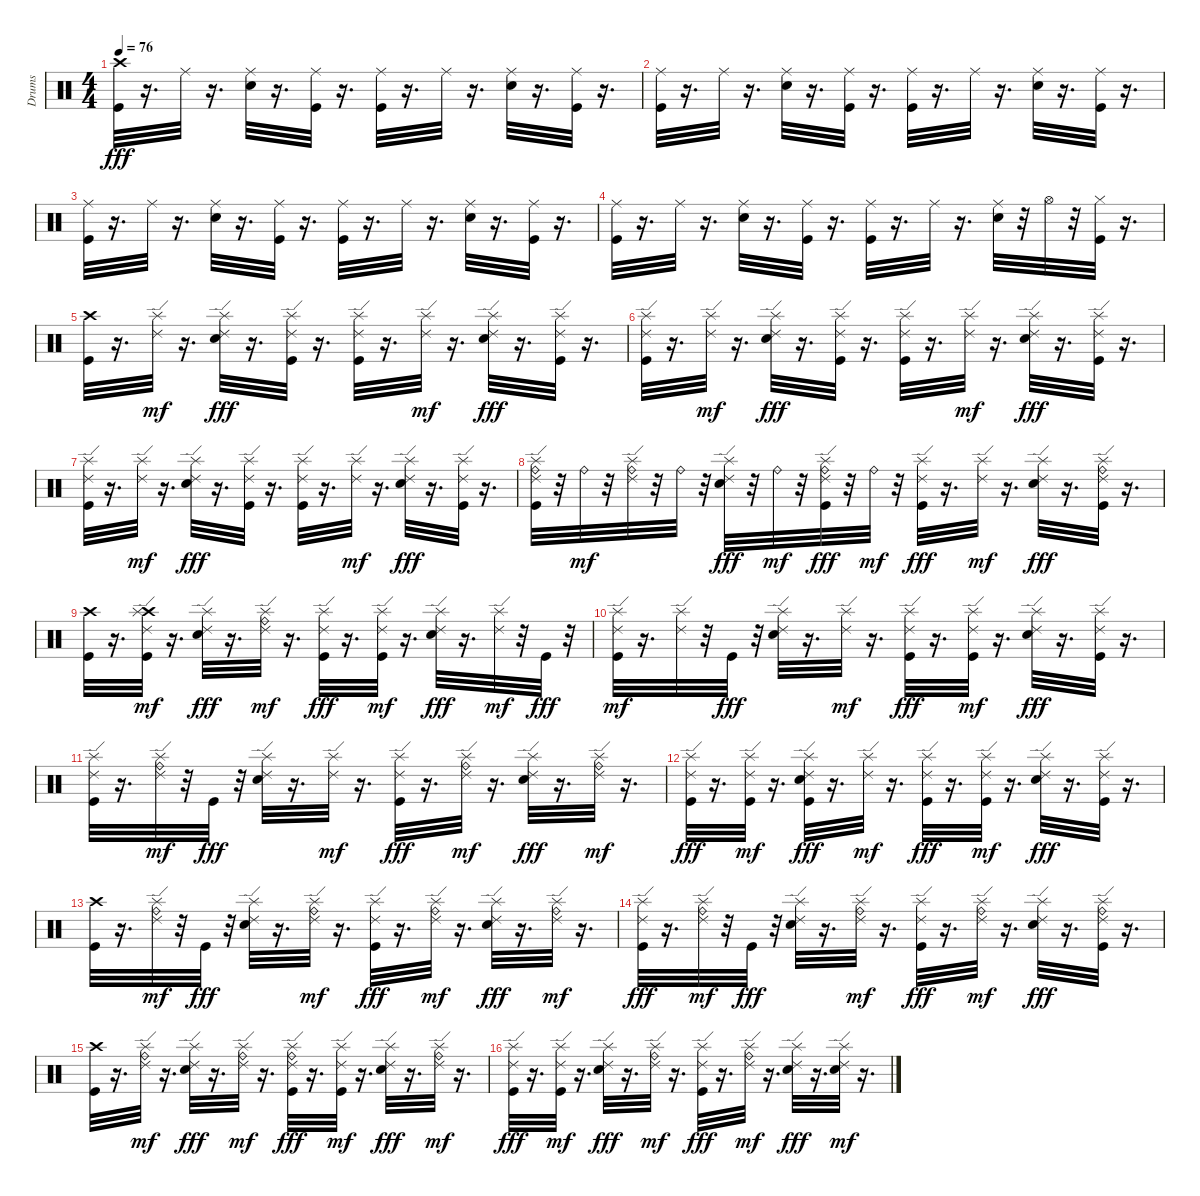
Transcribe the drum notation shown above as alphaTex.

\track ("Drums" "Drums") {instrument percussion}
\staff {score}
\articulation defaults
\ts (4 4)
\tempo 76
\clef neutral
\ks c
("Kick (hit)" "Crash high (hit)").32{dy fff} r.16{d} "Ride (middle)".32 r.16{d} ("Ride (middle)" "Electric Snare (hit)").32 r.16{d} ("Ride (middle)" "Kick (hit)").32 r.16{d} ("Ride (middle)" "Kick (hit)").32 r.16{d} "Ride (middle)".32 r.16{d} ("Ride (middle)" "Electric Snare (hit)").32 r.16{d} ("Ride (middle)" "Kick (hit)").32 r.16{d} |
("Ride (middle)" "Kick (hit)").32 r.16{d} "Ride (middle)".32 r.16{d} ("Ride (middle)" "Electric Snare (hit)").32 r.16{d} ("Ride (middle)" "Kick (hit)").32 r.16{d} ("Ride (middle)" "Kick (hit)").32 r.16{d} "Ride (middle)".32 r.16{d} ("Ride (middle)" "Electric Snare (hit)").32 r.16{d} ("Ride (middle)" "Kick (hit)").32 r.16{d} |
("Ride (middle)" "Kick (hit)").32 r.16{d} "Ride (middle)".32 r.16{d} ("Ride (middle)" "Electric Snare (hit)").32 r.16{d} ("Ride (middle)" "Kick (hit)").32 r.16{d} ("Ride (middle)" "Kick (hit)").32 r.16{d} "Ride (middle)".32 r.16{d} ("Ride (middle)" "Electric Snare (hit)").32 r.16{d} ("Ride (middle)" "Kick (hit)").32 r.16{d} |
("Ride (middle)" "Kick (hit)").32 r.16{d} "Ride (middle)".32 r.16{d} ("Ride (middle)" "Electric Snare (hit)").32 r.16{d} ("Ride (middle)" "Kick (hit)").32 r.16{d} ("Ride (middle)" "Kick (hit)").32 r.16{d} "Ride (middle)".32 r.16{d} ("Ride (middle)" "Electric Snare (hit)").32 r.32 "Hi-Hat (open)".32 r.32 ("Hi-Hat (closed)" "Kick (hit)").32 r.16{d} |
("Kick (hit)" "Crash high (hit)").32 r.16{d} ("Ride (edge) 2" "Splash (hit)").32{dy mf} r.16{d} ("Ride (edge) 2" "Splash (hit)" "Electric Snare (hit)").32{dy fff} r.16{d} ("Ride (edge) 2" "Splash (hit)" "Kick (hit)").32 r.16{d} ("Ride (edge) 2" "Splash (hit)" "Kick (hit)").32 r.16{d} ("Ride (edge) 2" "Splash (hit)").32{dy mf} r.16{d} ("Ride (edge) 2" "Splash (hit)" "Electric Snare (hit)").32{dy fff} r.16{d} ("Ride (edge) 2" "Splash (hit)" "Kick (hit)").32 r.16{d} |
("Ride (edge) 2" "Splash (hit)" "Kick (hit)").32 r.16{d} ("Ride (edge) 2" "Splash (hit)").32{dy mf} r.16{d} ("Ride (edge) 2" "Splash (hit)" "Electric Snare (hit)").32{dy fff} r.16{d} ("Ride (edge) 2" "Splash (hit)" "Kick (hit)").32 r.16{d} ("Ride (edge) 2" "Splash (hit)" "Kick (hit)").32 r.16{d} ("Ride (edge) 2" "Splash (hit)").32{dy mf} r.16{d} ("Ride (edge) 2" "Splash (hit)" "Electric Snare (hit)").32{dy fff} r.16{d} ("Ride (edge) 2" "Splash (hit)" "Kick (hit)").32 r.16{d} |
("Ride (edge) 2" "Splash (hit)" "Kick (hit)").32 r.16{d} ("Ride (edge) 2" "Splash (hit)").32{dy mf} r.16{d} ("Ride (edge) 2" "Splash (hit)" "Electric Snare (hit)").32{dy fff} r.16{d} ("Ride (edge) 2" "Splash (hit)" "Kick (hit)").32 r.16{d} ("Ride (edge) 2" "Splash (hit)" "Kick (hit)").32 r.16{d} ("Ride (edge) 2" "Splash (hit)").32{dy mf} r.16{d} ("Ride (edge) 2" "Splash (hit)" "Electric Snare (hit)").32{dy fff} r.16{d} ("Ride (edge) 2" "Splash (hit)" "Kick (hit)").32 r.16{d} |
("Ride (bell)" "Ride (edge) 2" "Splash (hit)" "Kick (hit)").32 r.32 "Ride (bell)".32{dy mf} r.32 ("Ride (bell)" "Ride (edge) 2" "Splash (hit)").32 r.32 "Ride (bell)".32 r.32 ("Ride (edge) 2" "Splash (hit)" "Electric Snare (hit)").32{dy fff} r.32 "Ride (bell)".32{dy mf} r.32 ("Ride (bell)" "Ride (edge) 2" "Splash (hit)" "Kick (hit)").32{dy fff} r.32 "Ride (bell)".32{dy mf} r.32 ("Ride (edge) 2" "Splash (hit)" "Kick (hit)").32{dy fff} r.16{d} ("Ride (edge) 2" "Splash (hit)").32{dy mf} r.16{d} ("Ride (edge) 2" "Splash (hit)" "Electric Snare (hit)").32{dy fff} r.16{d} ("Ride (bell)" "Ride (edge) 2" "Splash (hit)" "Kick (hit)").32 r.16{d} |
("Kick (hit)" "Crash high (hit)").32 r.16{d} ("Kick (hit)" "Crash high (hit)" "Ride (edge) 2" "Splash (hit)").32{dy mf} r.16{d} ("Ride (edge) 2" "Splash (hit)" "Electric Snare (hit)").32{dy fff} r.16{d} ("Ride (bell)" "Ride (edge) 2" "Splash (hit)").32{dy mf} r.16{d} ("Ride (edge) 2" "Splash (hit)" "Kick (hit)").32{dy fff} r.16{d} ("Kick (hit)" "Ride (edge) 2" "Splash (hit)").32{dy mf} r.16{d} ("Ride (edge) 2" "Splash (hit)" "Electric Snare (hit)").32{dy fff} r.16{d} ("Ride (edge) 2" "Splash (hit)").32{dy mf} r.32 "Kick (hit)".32{dy fff} r.32 |
("Kick (hit)" "Ride (edge) 2" "Splash (hit)").32{dy mf} r.16{d} ("Ride (edge) 2" "Splash (hit)").32 r.32 "Kick (hit)".32{dy fff} r.32 ("Ride (edge) 2" "Splash (hit)" "Electric Snare (hit)").32 r.16{d} ("Ride (edge) 2" "Splash (hit)").32{dy mf} r.16{d} ("Ride (edge) 2" "Splash (hit)" "Kick (hit)").32{dy fff} r.16{d} ("Kick (hit)" "Ride (edge) 2" "Splash (hit)").32{dy mf} r.16{d} ("Ride (edge) 2" "Splash (hit)" "Electric Snare (hit)").32{dy fff} r.16{d} ("Ride (edge) 2" "Splash (hit)" "Kick (hit)").32 r.16{d} |
("Ride (edge) 2" "Splash (hit)" "Kick (hit)").32 r.16{d} ("Ride (bell)" "Ride (edge) 2" "Splash (hit)").32{dy mf} r.32 "Kick (hit)".32{dy fff} r.32 ("Ride (edge) 2" "Splash (hit)" "Electric Snare (hit)").32 r.16{d} ("Ride (edge) 2" "Splash (hit)").32{dy mf} r.16{d} ("Ride (edge) 2" "Splash (hit)" "Kick (hit)").32{dy fff} r.16{d} ("Ride (bell)" "Ride (edge) 2" "Splash (hit)").32{dy mf} r.16{d} ("Ride (edge) 2" "Splash (hit)" "Electric Snare (hit)").32{dy fff} r.16{d} ("Ride (bell)" "Ride (edge) 2" "Splash (hit)").32{dy mf} r.16{d} |
("Ride (edge) 2" "Splash (hit)" "Kick (hit)").32{dy fff} r.16{d} ("Kick (hit)" "Ride (edge) 2" "Splash (hit)").32{dy mf} r.16{d} ("Kick (hit)" "Ride (edge) 2" "Splash (hit)" "Electric Snare (hit)").32{dy fff} r.16{d} ("Ride (edge) 2" "Splash (hit)").32{dy mf} r.16{d} ("Ride (edge) 2" "Splash (hit)" "Kick (hit)").32{dy fff} r.16{d} ("Kick (hit)" "Ride (edge) 2" "Splash (hit)").32{dy mf} r.16{d} ("Ride (edge) 2" "Splash (hit)" "Electric Snare (hit)").32{dy fff} r.16{d} ("Ride (edge) 2" "Splash (hit)" "Kick (hit)").32 r.16{d} |
("Kick (hit)" "Crash high (hit)").32 r.16{d} ("Ride (bell)" "Ride (edge) 2" "Splash (hit)").32{dy mf} r.32 "Kick (hit)".32{dy fff} r.32 ("Ride (edge) 2" "Splash (hit)" "Electric Snare (hit)").32 r.16{d} ("Ride (bell)" "Ride (edge) 2" "Splash (hit)").32{dy mf} r.16{d} ("Ride (edge) 2" "Splash (hit)" "Kick (hit)").32{dy fff} r.16{d} ("Ride (bell)" "Ride (edge) 2" "Splash (hit)").32{dy mf} r.16{d} ("Ride (edge) 2" "Splash (hit)" "Electric Snare (hit)").32{dy fff} r.16{d} ("Ride (bell)" "Ride (edge) 2" "Splash (hit)").32{dy mf} r.16{d} |
("Ride (edge) 2" "Splash (hit)" "Kick (hit)").32{dy fff} r.16{d} ("Ride (bell)" "Ride (edge) 2" "Splash (hit)").32{dy mf} r.32 "Kick (hit)".32{dy fff} r.32 ("Ride (edge) 2" "Splash (hit)" "Electric Snare (hit)").32 r.16{d} ("Ride (bell)" "Ride (edge) 2" "Splash (hit)").32{dy mf} r.16{d} ("Ride (edge) 2" "Splash (hit)" "Kick (hit)").32{dy fff} r.16{d} ("Ride (bell)" "Ride (edge) 2" "Splash (hit)").32{dy mf} r.16{d} ("Ride (edge) 2" "Splash (hit)" "Electric Snare (hit)").32{dy fff} r.16{d} ("Ride (bell)" "Ride (edge) 2" "Splash (hit)" "Kick (hit)").32 r.16{d} |
("Kick (hit)" "Crash high (hit)").32 r.16{d} ("Ride (bell)" "Ride (edge) 2" "Splash (hit)").32{dy mf} r.16{d} ("Ride (edge) 2" "Splash (hit)" "Electric Snare (hit)").32{dy fff} r.16{d} ("Ride (bell)" "Ride (edge) 2" "Splash (hit)").32{dy mf} r.16{d} ("Ride (bell)" "Ride (edge) 2" "Splash (hit)" "Kick (hit)").32{dy fff} r.16{d} ("Kick (hit)" "Ride (edge) 2" "Splash (hit)").32{dy mf} r.16{d} ("Ride (edge) 2" "Splash (hit)" "Electric Snare (hit)").32{dy fff} r.16{d} ("Ride (bell)" "Ride (edge) 2" "Splash (hit)").32{dy mf} r.16{d} |
("Ride (edge) 2" "Splash (hit)" "Kick (hit)").32{dy fff} r.16{d} ("Kick (hit)" "Ride (edge) 2" "Splash (hit)").32{dy mf} r.16{d} ("Ride (edge) 2" "Splash (hit)" "Electric Snare (hit)").32{dy fff} r.16{d} ("Ride (bell)" "Ride (edge) 2" "Splash (hit)").32{dy mf} r.16{d} ("Ride (edge) 2" "Splash (hit)" "Kick (hit)").32{dy fff} r.16{d} ("Ride (bell)" "Ride (edge) 2" "Splash (hit)").32{dy mf} r.16{d} ("Ride (edge) 2" "Splash (hit)" "Electric Snare (hit)").32{dy fff} r.16{d} ("Electric Snare (hit)" "Ride (edge) 2" "Splash (hit)").32{dy mf} r.16{d}
